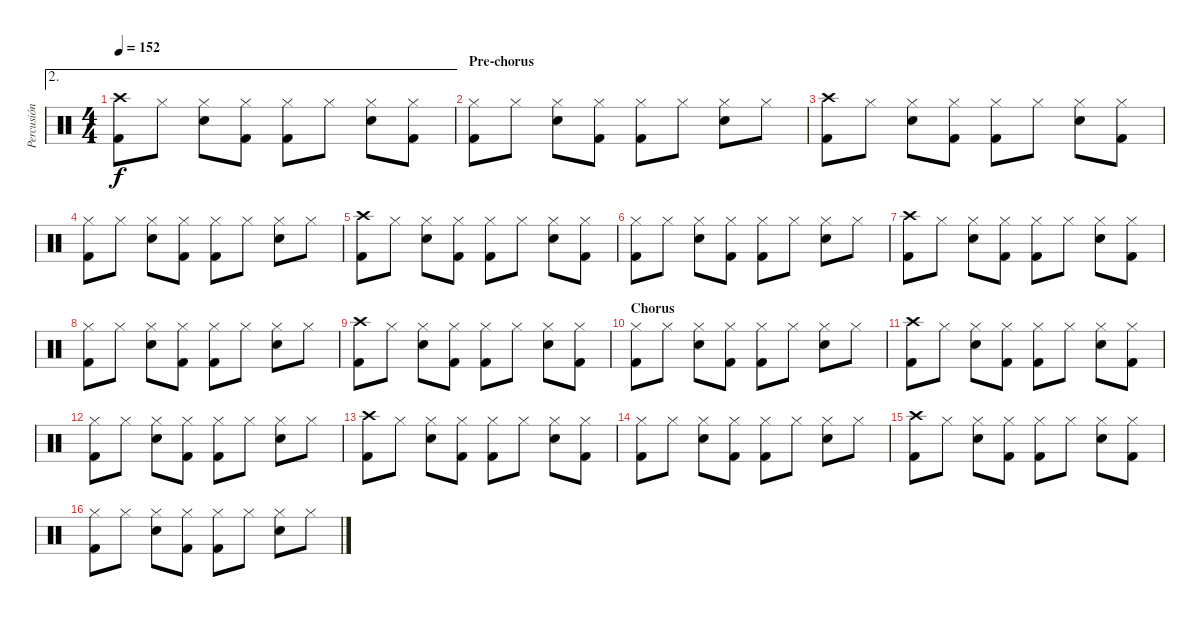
\track ("Percusión" "Percusión") {instrument percussion}
\staff {score}
\articulation defaults
\ae 2
\ts (4 4)
\tempo 152
\clef neutral
\ks c
("Kick (hit) 2" "Crash high (hit)").8{dy f} "Hi-Hat (closed)".8 ("Hi-Hat (closed)" "Electric Snare (hit)").8 ("Kick (hit) 2" "Hi-Hat (closed)").8 ("Kick (hit) 2" "Hi-Hat (closed)").8 "Hi-Hat (closed)".8 ("Hi-Hat (closed)" "Electric Snare (hit)").8 ("Kick (hit) 2" "Hi-Hat (closed)").8 |
\section ("" "Pre-chorus")
("Kick (hit) 2" "Hi-Hat (closed)").8 "Hi-Hat (closed)".8 ("Hi-Hat (closed)" "Electric Snare (hit)").8 ("Kick (hit) 2" "Hi-Hat (closed)").8 ("Kick (hit) 2" "Hi-Hat (closed)").8 "Hi-Hat (closed)".8 ("Hi-Hat (closed)" "Electric Snare (hit)").8 "Hi-Hat (closed)".8 |
("Kick (hit) 2" "Crash high (hit)").8 "Hi-Hat (closed)".8 ("Hi-Hat (closed)" "Electric Snare (hit)").8 ("Kick (hit) 2" "Hi-Hat (closed)").8 ("Kick (hit) 2" "Hi-Hat (closed)").8 "Hi-Hat (closed)".8 ("Hi-Hat (closed)" "Electric Snare (hit)").8 ("Kick (hit) 2" "Hi-Hat (closed)").8 |
("Kick (hit) 2" "Hi-Hat (closed)").8 "Hi-Hat (closed)".8 ("Hi-Hat (closed)" "Electric Snare (hit)").8 ("Kick (hit) 2" "Hi-Hat (closed)").8 ("Kick (hit) 2" "Hi-Hat (closed)").8 "Hi-Hat (closed)".8 ("Hi-Hat (closed)" "Electric Snare (hit)").8 "Hi-Hat (closed)".8 |
("Kick (hit) 2" "Crash high (hit)").8 "Hi-Hat (closed)".8 ("Hi-Hat (closed)" "Electric Snare (hit)").8 ("Kick (hit) 2" "Hi-Hat (closed)").8 ("Kick (hit) 2" "Hi-Hat (closed)").8 "Hi-Hat (closed)".8 ("Hi-Hat (closed)" "Electric Snare (hit)").8 ("Kick (hit) 2" "Hi-Hat (closed)").8 |
("Kick (hit) 2" "Hi-Hat (closed)").8 "Hi-Hat (closed)".8 ("Hi-Hat (closed)" "Electric Snare (hit)").8 ("Kick (hit) 2" "Hi-Hat (closed)").8 ("Kick (hit) 2" "Hi-Hat (closed)").8 "Hi-Hat (closed)".8 ("Hi-Hat (closed)" "Electric Snare (hit)").8 "Hi-Hat (closed)".8 |
("Kick (hit) 2" "Crash high (hit)").8 "Hi-Hat (closed)".8 ("Hi-Hat (closed)" "Electric Snare (hit)").8 ("Kick (hit) 2" "Hi-Hat (closed)").8 ("Kick (hit) 2" "Hi-Hat (closed)").8 "Hi-Hat (closed)".8 ("Hi-Hat (closed)" "Electric Snare (hit)").8 ("Kick (hit) 2" "Hi-Hat (closed)").8 |
("Kick (hit) 2" "Hi-Hat (closed)").8 "Hi-Hat (closed)".8 ("Hi-Hat (closed)" "Electric Snare (hit)").8 ("Kick (hit) 2" "Hi-Hat (closed)").8 ("Kick (hit) 2" "Hi-Hat (closed)").8 "Hi-Hat (closed)".8 ("Hi-Hat (closed)" "Electric Snare (hit)").8 "Hi-Hat (closed)".8 |
("Kick (hit) 2" "Crash high (hit)").8 "Hi-Hat (closed)".8 ("Hi-Hat (closed)" "Electric Snare (hit)").8 ("Kick (hit) 2" "Hi-Hat (closed)").8 ("Kick (hit) 2" "Hi-Hat (closed)").8 "Hi-Hat (closed)".8 ("Hi-Hat (closed)" "Electric Snare (hit)").8 ("Kick (hit) 2" "Hi-Hat (closed)").8 |
\section ("" "Chorus")
("Kick (hit) 2" "Hi-Hat (closed)").8 "Hi-Hat (closed)".8 ("Hi-Hat (closed)" "Electric Snare (hit)").8 ("Kick (hit) 2" "Hi-Hat (closed)").8 ("Kick (hit) 2" "Hi-Hat (closed)").8 "Hi-Hat (closed)".8 ("Hi-Hat (closed)" "Electric Snare (hit)").8 "Hi-Hat (closed)".8 |
("Kick (hit) 2" "Crash high (hit)").8 "Hi-Hat (closed)".8 ("Hi-Hat (closed)" "Electric Snare (hit)").8 ("Kick (hit) 2" "Hi-Hat (closed)").8 ("Kick (hit) 2" "Hi-Hat (closed)").8 "Hi-Hat (closed)".8 ("Hi-Hat (closed)" "Electric Snare (hit)").8 ("Kick (hit) 2" "Hi-Hat (closed)").8 |
("Kick (hit) 2" "Hi-Hat (closed)").8 "Hi-Hat (closed)".8 ("Hi-Hat (closed)" "Electric Snare (hit)").8 ("Kick (hit) 2" "Hi-Hat (closed)").8 ("Kick (hit) 2" "Hi-Hat (closed)").8 "Hi-Hat (closed)".8 ("Hi-Hat (closed)" "Electric Snare (hit)").8 "Hi-Hat (closed)".8 |
("Kick (hit) 2" "Crash high (hit)").8 "Hi-Hat (closed)".8 ("Hi-Hat (closed)" "Electric Snare (hit)").8 ("Kick (hit) 2" "Hi-Hat (closed)").8 ("Kick (hit) 2" "Hi-Hat (closed)").8 "Hi-Hat (closed)".8 ("Hi-Hat (closed)" "Electric Snare (hit)").8 ("Kick (hit) 2" "Hi-Hat (closed)").8 |
("Kick (hit) 2" "Hi-Hat (closed)").8 "Hi-Hat (closed)".8 ("Hi-Hat (closed)" "Electric Snare (hit)").8 ("Kick (hit) 2" "Hi-Hat (closed)").8 ("Kick (hit) 2" "Hi-Hat (closed)").8 "Hi-Hat (closed)".8 ("Hi-Hat (closed)" "Electric Snare (hit)").8 "Hi-Hat (closed)".8 |
("Kick (hit) 2" "Crash high (hit)").8 "Hi-Hat (closed)".8 ("Hi-Hat (closed)" "Electric Snare (hit)").8 ("Kick (hit) 2" "Hi-Hat (closed)").8 ("Kick (hit) 2" "Hi-Hat (closed)").8 "Hi-Hat (closed)".8 ("Hi-Hat (closed)" "Electric Snare (hit)").8 ("Kick (hit) 2" "Hi-Hat (closed)").8 |
("Kick (hit) 2" "Hi-Hat (closed)").8 "Hi-Hat (closed)".8 ("Hi-Hat (closed)" "Electric Snare (hit)").8 ("Kick (hit) 2" "Hi-Hat (closed)").8 ("Kick (hit) 2" "Hi-Hat (closed)").8 "Hi-Hat (closed)".8 ("Hi-Hat (closed)" "Electric Snare (hit)").8 "Hi-Hat (closed)".8
